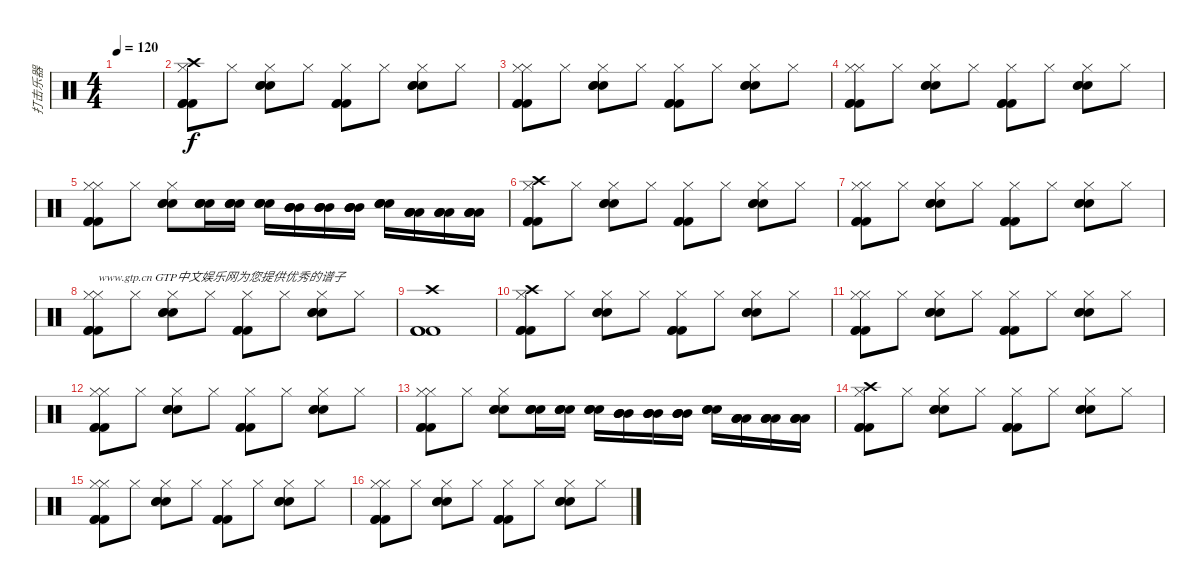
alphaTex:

\track ("打击乐器" "打击乐器") {instrument percussion}
\staff {score}
\articulation defaults
\ts (4 4)
\tempo 120
\clef neutral
\ks c
|
("Kick (hit) 2" "Kick (hit) 2" "Kick (hit) 2" "Hi-Hat (closed)" "Crash high (hit)").8 "Hi-Hat (closed)".8 ("Snare (hit) 2" "Snare (hit) 2" "Snare (hit) 2" "Hi-Hat (closed)").8 "Hi-Hat (closed)".8 ("Kick (hit) 2" "Kick (hit) 2" "Kick (hit) 2" "Hi-Hat (closed)").8 "Hi-Hat (closed)".8 ("Snare (hit) 2" "Snare (hit) 2" "Snare (hit) 2" "Hi-Hat (closed)").8 "Hi-Hat (closed)".8 |
("Kick (hit) 2" "Kick (hit) 2" "Kick (hit) 2" "Hi-Hat (closed)" "Hi-Hat (closed)").8 "Hi-Hat (closed)".8 ("Snare (hit) 2" "Snare (hit) 2" "Snare (hit) 2" "Hi-Hat (closed)").8 "Hi-Hat (closed)".8 ("Kick (hit) 2" "Kick (hit) 2" "Kick (hit) 2" "Hi-Hat (closed)").8 "Hi-Hat (closed)".8 ("Snare (hit) 2" "Snare (hit) 2" "Snare (hit) 2" "Hi-Hat (closed)").8 "Hi-Hat (closed)".8 |
("Kick (hit) 2" "Kick (hit) 2" "Kick (hit) 2" "Hi-Hat (closed)" "Hi-Hat (closed)").8 "Hi-Hat (closed)".8 ("Snare (hit) 2" "Snare (hit) 2" "Snare (hit) 2" "Hi-Hat (closed)").8 "Hi-Hat (closed)".8 ("Kick (hit) 2" "Kick (hit) 2" "Kick (hit) 2" "Hi-Hat (closed)").8 "Hi-Hat (closed)".8 ("Snare (hit) 2" "Snare (hit) 2" "Snare (hit) 2" "Hi-Hat (closed)").8 "Hi-Hat (closed)".8 |
("Kick (hit) 2" "Kick (hit) 2" "Kick (hit) 2" "Hi-Hat (closed)" "Hi-Hat (closed)").8 "Hi-Hat (closed)".8 ("Snare (hit) 2" "Snare (hit) 2" "Snare (hit) 2" "Hi-Hat (closed)").8 ("Snare (hit) 2" "Snare (hit) 2" "Snare (hit) 2" "Snare (hit) 2").16 ("Snare (hit) 2" "Snare (hit) 2" "Snare (hit) 2" "Snare (hit) 2").16 ("Snare (hit) 2" "Snare (hit) 2" "Snare (hit) 2" "Snare (hit) 2").16 ("Mid Tom (hit)" "Mid Tom (hit)" "Mid Tom (hit)" "Mid Tom (hit)").16 ("Mid Tom (hit)" "Mid Tom (hit)" "Mid Tom (hit)" "Mid Tom (hit)").16 ("Mid Tom (hit)" "Mid Tom (hit)" "Mid Tom (hit)" "Mid Tom (hit)").16 ("Snare (hit) 2" "Snare (hit) 2" "Snare (hit) 2" "Snare (hit) 2").16 ("Low Tom (hit)" "Low Tom (hit)" "Low Tom (hit)" "Low Tom (hit)").16 ("Low Tom (hit)" "Low Tom (hit)" "Low Tom (hit)" "Low Tom (hit)").16 ("Low Tom (hit)" "Low Tom (hit)" "Low Tom (hit)" "Low Tom (hit)").16 |
("Kick (hit) 2" "Kick (hit) 2" "Kick (hit) 2" "Hi-Hat (closed)" "Crash high (hit)").8 "Hi-Hat (closed)".8 ("Snare (hit) 2" "Snare (hit) 2" "Snare (hit) 2" "Hi-Hat (closed)").8 "Hi-Hat (closed)".8 ("Kick (hit) 2" "Kick (hit) 2" "Kick (hit) 2" "Hi-Hat (closed)").8 "Hi-Hat (closed)".8 ("Snare (hit) 2" "Snare (hit) 2" "Snare (hit) 2" "Hi-Hat (closed)").8 "Hi-Hat (closed)".8 |
("Kick (hit) 2" "Kick (hit) 2" "Kick (hit) 2" "Hi-Hat (closed)" "Hi-Hat (closed)").8 "Hi-Hat (closed)".8 ("Snare (hit) 2" "Snare (hit) 2" "Snare (hit) 2" "Hi-Hat (closed)").8 "Hi-Hat (closed)".8 ("Kick (hit) 2" "Kick (hit) 2" "Kick (hit) 2" "Hi-Hat (closed)").8 "Hi-Hat (closed)".8 ("Snare (hit) 2" "Snare (hit) 2" "Snare (hit) 2" "Hi-Hat (closed)").8 "Hi-Hat (closed)".8 |
("Kick (hit) 2" "Kick (hit) 2" "Kick (hit) 2" "Hi-Hat (closed)" "Hi-Hat (closed)").8{txt "www.gtp.cn GTP中文娱乐网为您提供优秀的谱子"} "Hi-Hat (closed)".8 ("Snare (hit) 2" "Snare (hit) 2" "Snare (hit) 2" "Hi-Hat (closed)").8 "Hi-Hat (closed)".8 ("Kick (hit) 2" "Kick (hit) 2" "Kick (hit) 2" "Hi-Hat (closed)").8 "Hi-Hat (closed)".8 ("Snare (hit) 2" "Snare (hit) 2" "Snare (hit) 2" "Hi-Hat (closed)").8 "Hi-Hat (closed)".8 |
("Crash high (hit)" "Kick (hit) 2" "Kick (hit) 2" "Kick (hit) 2").1 |
("Kick (hit) 2" "Kick (hit) 2" "Kick (hit) 2" "Hi-Hat (closed)" "Crash high (hit)").8 "Hi-Hat (closed)".8 ("Snare (hit) 2" "Snare (hit) 2" "Snare (hit) 2" "Hi-Hat (closed)").8 "Hi-Hat (closed)".8 ("Kick (hit) 2" "Kick (hit) 2" "Kick (hit) 2" "Hi-Hat (closed)").8 "Hi-Hat (closed)".8 ("Snare (hit) 2" "Snare (hit) 2" "Snare (hit) 2" "Hi-Hat (closed)").8 "Hi-Hat (closed)".8 |
("Kick (hit) 2" "Kick (hit) 2" "Kick (hit) 2" "Hi-Hat (closed)" "Hi-Hat (closed)").8 "Hi-Hat (closed)".8 ("Snare (hit) 2" "Snare (hit) 2" "Snare (hit) 2" "Hi-Hat (closed)").8 "Hi-Hat (closed)".8 ("Kick (hit) 2" "Kick (hit) 2" "Kick (hit) 2" "Hi-Hat (closed)").8 "Hi-Hat (closed)".8 ("Snare (hit) 2" "Snare (hit) 2" "Snare (hit) 2" "Hi-Hat (closed)").8 "Hi-Hat (closed)".8 |
("Kick (hit) 2" "Kick (hit) 2" "Kick (hit) 2" "Hi-Hat (closed)" "Hi-Hat (closed)").8 "Hi-Hat (closed)".8 ("Snare (hit) 2" "Snare (hit) 2" "Snare (hit) 2" "Hi-Hat (closed)").8 "Hi-Hat (closed)".8 ("Kick (hit) 2" "Kick (hit) 2" "Kick (hit) 2" "Hi-Hat (closed)").8 "Hi-Hat (closed)".8 ("Snare (hit) 2" "Snare (hit) 2" "Snare (hit) 2" "Hi-Hat (closed)").8 "Hi-Hat (closed)".8 |
("Kick (hit) 2" "Kick (hit) 2" "Kick (hit) 2" "Hi-Hat (closed)" "Hi-Hat (closed)").8 "Hi-Hat (closed)".8 ("Snare (hit) 2" "Snare (hit) 2" "Snare (hit) 2" "Hi-Hat (closed)").8 ("Snare (hit) 2" "Snare (hit) 2" "Snare (hit) 2" "Snare (hit) 2").16 ("Snare (hit) 2" "Snare (hit) 2" "Snare (hit) 2" "Snare (hit) 2").16 ("Snare (hit) 2" "Snare (hit) 2" "Snare (hit) 2" "Snare (hit) 2").16 ("Mid Tom (hit)" "Mid Tom (hit)" "Mid Tom (hit)" "Mid Tom (hit)").16 ("Mid Tom (hit)" "Mid Tom (hit)" "Mid Tom (hit)" "Mid Tom (hit)").16 ("Mid Tom (hit)" "Mid Tom (hit)" "Mid Tom (hit)" "Mid Tom (hit)").16 ("Snare (hit) 2" "Snare (hit) 2" "Snare (hit) 2" "Snare (hit) 2").16 ("Low Tom (hit)" "Low Tom (hit)" "Low Tom (hit)" "Low Tom (hit)").16 ("Low Tom (hit)" "Low Tom (hit)" "Low Tom (hit)" "Low Tom (hit)").16 ("Low Tom (hit)" "Low Tom (hit)" "Low Tom (hit)" "Low Tom (hit)").16 |
("Kick (hit) 2" "Kick (hit) 2" "Kick (hit) 2" "Hi-Hat (closed)" "Crash high (hit)").8 "Hi-Hat (closed)".8 ("Snare (hit) 2" "Snare (hit) 2" "Snare (hit) 2" "Hi-Hat (closed)").8 "Hi-Hat (closed)".8 ("Kick (hit) 2" "Kick (hit) 2" "Kick (hit) 2" "Hi-Hat (closed)").8 "Hi-Hat (closed)".8 ("Snare (hit) 2" "Snare (hit) 2" "Snare (hit) 2" "Hi-Hat (closed)").8 "Hi-Hat (closed)".8 |
("Kick (hit) 2" "Kick (hit) 2" "Kick (hit) 2" "Hi-Hat (closed)" "Hi-Hat (closed)").8 "Hi-Hat (closed)".8 ("Snare (hit) 2" "Snare (hit) 2" "Snare (hit) 2" "Hi-Hat (closed)").8 "Hi-Hat (closed)".8 ("Kick (hit) 2" "Kick (hit) 2" "Kick (hit) 2" "Hi-Hat (closed)").8 "Hi-Hat (closed)".8 ("Snare (hit) 2" "Snare (hit) 2" "Snare (hit) 2" "Hi-Hat (closed)").8 "Hi-Hat (closed)".8 |
("Kick (hit) 2" "Kick (hit) 2" "Kick (hit) 2" "Hi-Hat (closed)" "Hi-Hat (closed)").8 "Hi-Hat (closed)".8 ("Snare (hit) 2" "Snare (hit) 2" "Snare (hit) 2" "Hi-Hat (closed)").8 "Hi-Hat (closed)".8 ("Kick (hit) 2" "Kick (hit) 2" "Kick (hit) 2" "Hi-Hat (closed)").8 "Hi-Hat (closed)".8 ("Snare (hit) 2" "Snare (hit) 2" "Snare (hit) 2" "Hi-Hat (closed)").8 "Hi-Hat (closed)".8
